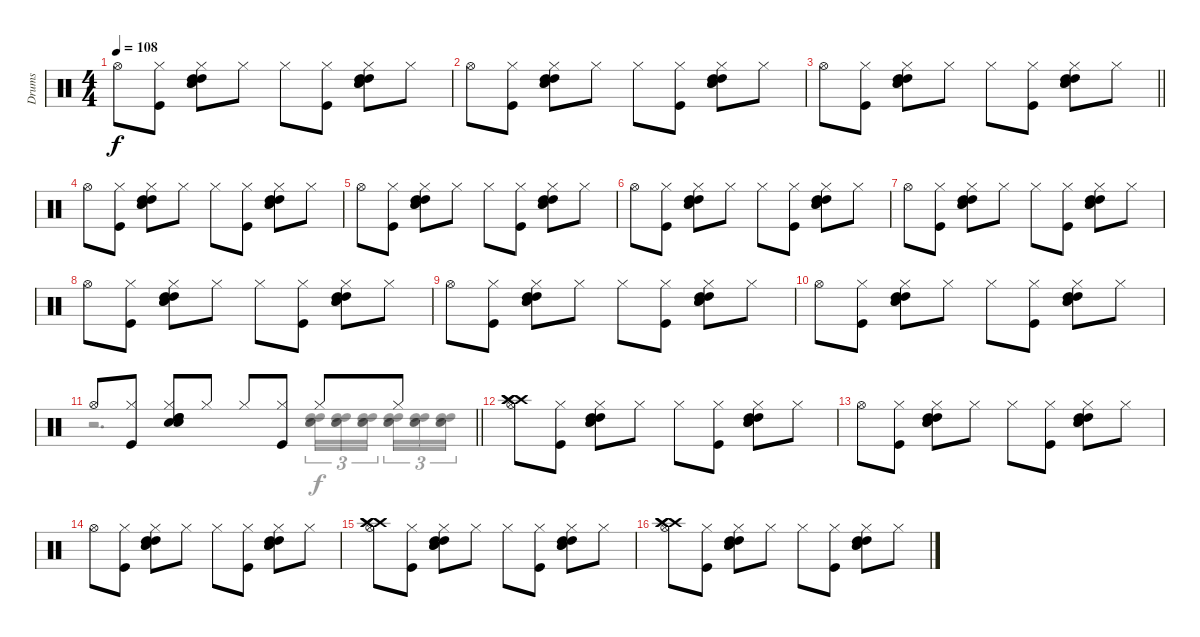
\track ("Drums" "Drums") {instrument percussion}
\staff {score}
\articulation defaults
\voice
\ts (4 4)
\tempo 108
\clef neutral
\ks c "Hi-Hat (open)".8{dy f}
("Kick (hit)" "Hi-Hat (closed)").8 ("Snare (hit) 2" "Snare (hit) 2" "High Tom (hit)" "High Tom (hit)" "Hi-Hat (closed)").8 "Hi-Hat (closed)".8 "Hi-Hat (closed)".8 ("Kick (hit)" "Hi-Hat (closed)").8 ("Snare (hit) 2" "Snare (hit) 2" "High Tom (hit)" "High Tom (hit)" "Hi-Hat (closed)").8 "Hi-Hat (closed)".8 |
"Hi-Hat (open)".8 ("Kick (hit)" "Hi-Hat (closed)").8 ("Snare (hit) 2" "Snare (hit) 2" "High Tom (hit)" "High Tom (hit)" "Hi-Hat (closed)").8 "Hi-Hat (closed)".8 "Hi-Hat (closed)".8 ("Kick (hit)" "Hi-Hat (closed)").8 ("Snare (hit) 2" "Snare (hit) 2" "High Tom (hit)" "High Tom (hit)" "Hi-Hat (closed)").8 "Hi-Hat (closed)".8 |
\barLineRight lightlight "Hi-Hat (open)".8
("Kick (hit)" "Hi-Hat (closed)").8 ("Snare (hit) 2" "Snare (hit) 2" "High Tom (hit)" "High Tom (hit)" "Hi-Hat (closed)").8 "Hi-Hat (closed)".8 "Hi-Hat (closed)".8 ("Kick (hit)" "Hi-Hat (closed)").8 ("Snare (hit) 2" "Snare (hit) 2" "High Tom (hit)" "High Tom (hit)" "Hi-Hat (closed)").8 "Hi-Hat (closed)".8 |
"Hi-Hat (open)".8 ("Kick (hit)" "Hi-Hat (closed)").8 ("Snare (hit) 2" "Snare (hit) 2" "High Tom (hit)" "High Tom (hit)" "Hi-Hat (closed)").8 "Hi-Hat (closed)".8 "Hi-Hat (closed)".8 ("Kick (hit)" "Hi-Hat (closed)").8 ("Snare (hit) 2" "Snare (hit) 2" "High Tom (hit)" "High Tom (hit)" "Hi-Hat (closed)").8 "Hi-Hat (closed)".8 |
"Hi-Hat (open)".8 ("Kick (hit)" "Hi-Hat (closed)").8 ("Snare (hit) 2" "Snare (hit) 2" "High Tom (hit)" "High Tom (hit)" "Hi-Hat (closed)").8 "Hi-Hat (closed)".8 "Hi-Hat (closed)".8 ("Kick (hit)" "Hi-Hat (closed)").8 ("Snare (hit) 2" "Snare (hit) 2" "High Tom (hit)" "High Tom (hit)" "Hi-Hat (closed)").8 "Hi-Hat (closed)".8 |
"Hi-Hat (open)".8 ("Kick (hit)" "Hi-Hat (closed)").8 ("Snare (hit) 2" "Snare (hit) 2" "High Tom (hit)" "High Tom (hit)" "Hi-Hat (closed)").8 "Hi-Hat (closed)".8 "Hi-Hat (closed)".8 ("Kick (hit)" "Hi-Hat (closed)").8 ("Snare (hit) 2" "Snare (hit) 2" "High Tom (hit)" "High Tom (hit)" "Hi-Hat (closed)").8 "Hi-Hat (closed)".8 |
"Hi-Hat (open)".8 ("Kick (hit)" "Hi-Hat (closed)").8 ("Snare (hit) 2" "Snare (hit) 2" "High Tom (hit)" "High Tom (hit)" "Hi-Hat (closed)").8 "Hi-Hat (closed)".8 "Hi-Hat (closed)".8 ("Kick (hit)" "Hi-Hat (closed)").8 ("Snare (hit) 2" "Snare (hit) 2" "High Tom (hit)" "High Tom (hit)" "Hi-Hat (closed)").8 "Hi-Hat (closed)".8 |
"Hi-Hat (open)".8 ("Kick (hit)" "Hi-Hat (closed)").8 ("Snare (hit) 2" "Snare (hit) 2" "High Tom (hit)" "High Tom (hit)" "Hi-Hat (closed)").8 "Hi-Hat (closed)".8 "Hi-Hat (closed)".8 ("Kick (hit)" "Hi-Hat (closed)").8 ("Snare (hit) 2" "Snare (hit) 2" "High Tom (hit)" "High Tom (hit)" "Hi-Hat (closed)").8 "Hi-Hat (closed)".8 |
"Hi-Hat (open)".8 ("Kick (hit)" "Hi-Hat (closed)").8 ("Snare (hit) 2" "Snare (hit) 2" "High Tom (hit)" "High Tom (hit)" "Hi-Hat (closed)").8 "Hi-Hat (closed)".8 "Hi-Hat (closed)".8 ("Kick (hit)" "Hi-Hat (closed)").8 ("Snare (hit) 2" "Snare (hit) 2" "High Tom (hit)" "High Tom (hit)" "Hi-Hat (closed)").8 "Hi-Hat (closed)".8 |
"Hi-Hat (open)".8 ("Kick (hit)" "Hi-Hat (closed)").8 ("Snare (hit) 2" "Snare (hit) 2" "High Tom (hit)" "High Tom (hit)" "Hi-Hat (closed)").8 "Hi-Hat (closed)".8 "Hi-Hat (closed)".8 ("Kick (hit)" "Hi-Hat (closed)").8 ("Snare (hit) 2" "Snare (hit) 2" "High Tom (hit)" "High Tom (hit)" "Hi-Hat (closed)").8 "Hi-Hat (closed)".8 |
\barLineRight lightlight "Hi-Hat (open)".8
("Kick (hit)" "Hi-Hat (closed)").8 ("Snare (hit) 2" "Snare (hit) 2" "High Tom (hit)" "High Tom (hit)" "Hi-Hat (closed)").8 "Hi-Hat (closed)".8 "Hi-Hat (closed)".8 ("Kick (hit)" "Hi-Hat (closed)").8 "Hi-Hat (closed)".8 "Hi-Hat (closed)".8 |
("Crash high (hit)" "Crash high (hit)" "Crash high (hit)" "Hi-Hat (open)").8 ("Kick (hit)" "Hi-Hat (closed)").8 ("Snare (hit) 2" "Snare (hit) 2" "High Tom (hit)" "High Tom (hit)" "Hi-Hat (closed)").8 "Hi-Hat (closed)".8 "Hi-Hat (closed)".8 ("Kick (hit)" "Hi-Hat (closed)").8 ("Snare (hit) 2" "Snare (hit) 2" "High Tom (hit)" "High Tom (hit)" "Hi-Hat (closed)").8 "Hi-Hat (closed)".8 |
"Hi-Hat (open)".8 ("Kick (hit)" "Hi-Hat (closed)").8 ("Snare (hit) 2" "Snare (hit) 2" "High Tom (hit)" "High Tom (hit)" "Hi-Hat (closed)").8 "Hi-Hat (closed)".8 "Hi-Hat (closed)".8 ("Kick (hit)" "Hi-Hat (closed)").8 ("Snare (hit) 2" "Snare (hit) 2" "High Tom (hit)" "High Tom (hit)" "Hi-Hat (closed)").8 "Hi-Hat (closed)".8 |
"Hi-Hat (open)".8 ("Kick (hit)" "Hi-Hat (closed)").8 ("Snare (hit) 2" "Snare (hit) 2" "High Tom (hit)" "High Tom (hit)" "Hi-Hat (closed)").8 "Hi-Hat (closed)".8 "Hi-Hat (closed)".8 ("Kick (hit)" "Hi-Hat (closed)").8 ("Snare (hit) 2" "Snare (hit) 2" "High Tom (hit)" "High Tom (hit)" "Hi-Hat (closed)").8 "Hi-Hat (closed)".8 |
("Crash high (hit)" "Crash high (hit)" "Crash high (hit)" "Hi-Hat (open)").8 ("Kick (hit)" "Hi-Hat (closed)").8 ("Snare (hit) 2" "Snare (hit) 2" "High Tom (hit)" "High Tom (hit)" "Hi-Hat (closed)").8 "Hi-Hat (closed)".8 "Hi-Hat (closed)".8 ("Kick (hit)" "Hi-Hat (closed)").8 ("Snare (hit) 2" "Snare (hit) 2" "High Tom (hit)" "High Tom (hit)" "Hi-Hat (closed)").8 "Hi-Hat (closed)".8 |
("Crash high (hit)" "Crash high (hit)" "Crash high (hit)" "Hi-Hat (open)").8 ("Kick (hit)" "Hi-Hat (closed)").8 ("Snare (hit) 2" "Snare (hit) 2" "High Tom (hit)" "High Tom (hit)" "Hi-Hat (closed)").8 "Hi-Hat (closed)".8 "Hi-Hat (closed)".8 ("Kick (hit)" "Hi-Hat (closed)").8 ("Snare (hit) 2" "Snare (hit) 2" "High Tom (hit)" "High Tom (hit)" "Hi-Hat (closed)").8 "Hi-Hat (closed)".8
\voice
\clef neutral
\ottava regular
\simile none
\ks c
|
|
\barLineRight lightlight
|
|
|
|
|
|
|
|
\barLineRight lightlight
r.2{d} ("Snare (hit) 2" "High Tom (hit)" "High Tom (hit)" "Snare (hit) 2").16{tu (3 2)} ("Snare (hit) 2" "High Tom (hit)" "High Tom (hit)" "Snare (hit) 2").16{tu (3 2)} ("Snare (hit) 2" "High Tom (hit)" "High Tom (hit)" "Snare (hit) 2").16{tu (3 2) beam splitsecondary} ("Snare (hit) 2" "High Tom (hit)" "High Tom (hit)" "Snare (hit) 2").16{tu (3 2)} ("Snare (hit) 2" "High Tom (hit)" "High Tom (hit)" "Snare (hit) 2").16{tu (3 2)} ("Snare (hit) 2" "High Tom (hit)" "High Tom (hit)" "Snare (hit) 2").16{tu (3 2)} |
|
|
|
|
